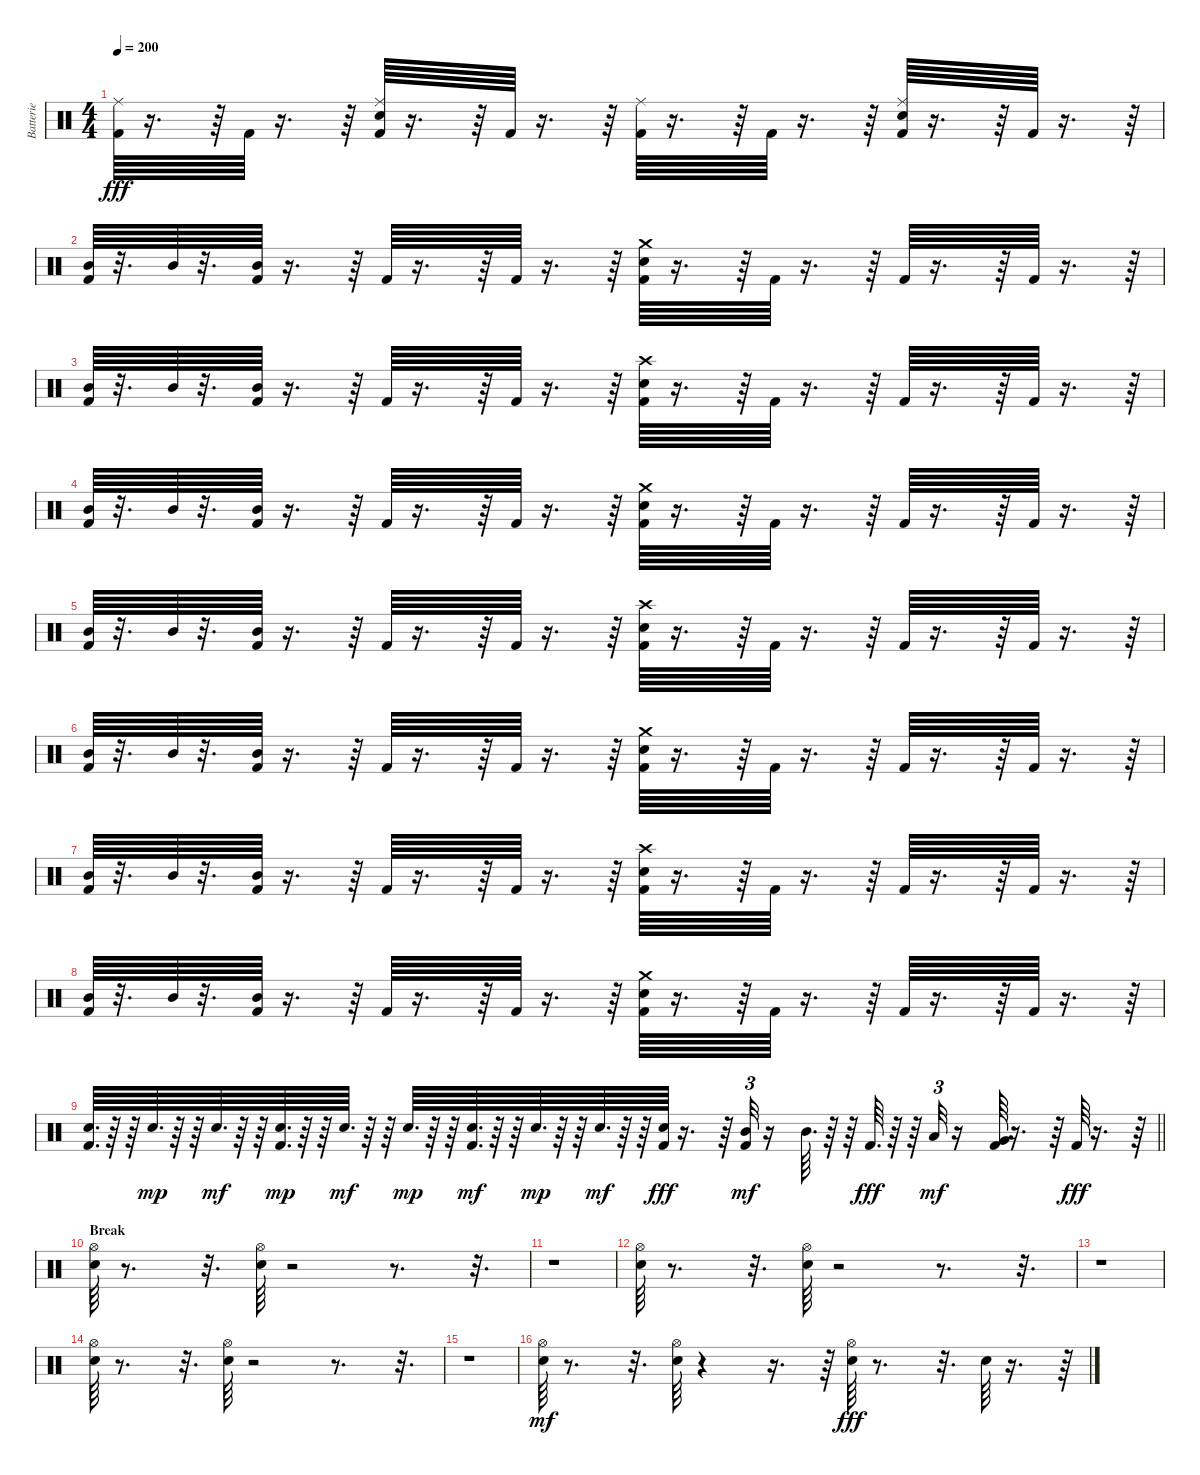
\track ("Batterie" "Batterie") {instrument percussion}
\staff {score}
\articulation defaults
\ts (4 4)
\tempo 200
\clef neutral
\ks c
("Kick (hit) 2" "Ride (middle)").64{dy fff} r.16{d} r.64 "Kick (hit) 2".64 r.16{d} r.64 ("Kick (hit) 2" "Snare (hit) 2" "Ride (middle)").64 r.16{d} r.64 "Kick (hit) 2".64 r.16{d} r.64 ("Kick (hit) 2" "Ride (middle)").64 r.16{d} r.64 "Kick (hit) 2".64 r.16{d} r.64 ("Kick (hit) 2" "Snare (hit) 2" "Ride (middle)").64 r.16{d} r.64 "Kick (hit) 2".64 r.16{d} r.64 |
("Kick (hit) 2" "Mid Tom (hit)").64 r.32{d} "Mid Tom (hit)".64 r.32{d} ("Kick (hit) 2" "Mid Tom (hit)").64 r.16{d} r.64 "Kick (hit) 2".64 r.16{d} r.64 "Kick (hit) 2".64 r.16{d} r.64 ("Kick (hit) 2" "Snare (hit) 2" "Crash medium (hit)").64 r.16{d} r.64 "Kick (hit) 2".64 r.16{d} r.64 "Kick (hit) 2".64 r.16{d} r.64 "Kick (hit) 2".64 r.16{d} r.64 |
("Kick (hit) 2" "Mid Tom (hit)").64 r.32{d} "Mid Tom (hit)".64 r.32{d} ("Kick (hit) 2" "Mid Tom (hit)").64 r.16{d} r.64 "Kick (hit) 2".64 r.16{d} r.64 "Kick (hit) 2".64 r.16{d} r.64 ("Snare (hit) 2" "Kick (hit) 2" "Crash high (hit)").64 r.16{d} r.64 "Kick (hit) 2".64 r.16{d} r.64 "Kick (hit) 2".64 r.16{d} r.64 "Kick (hit) 2".64 r.16{d} r.64 |
("Kick (hit) 2" "Mid Tom (hit)").64 r.32{d} "Mid Tom (hit)".64 r.32{d} ("Kick (hit) 2" "Mid Tom (hit)").64 r.16{d} r.64 "Kick (hit) 2".64 r.16{d} r.64 "Kick (hit) 2".64 r.16{d} r.64 ("Kick (hit) 2" "Snare (hit) 2" "Crash medium (hit)").64 r.16{d} r.64 "Kick (hit) 2".64 r.16{d} r.64 "Kick (hit) 2".64 r.16{d} r.64 "Kick (hit) 2".64 r.16{d} r.64 |
("Kick (hit) 2" "Mid Tom (hit)").64 r.32{d} "Mid Tom (hit)".64 r.32{d} ("Kick (hit) 2" "Mid Tom (hit)").64 r.16{d} r.64 "Kick (hit) 2".64 r.16{d} r.64 "Kick (hit) 2".64 r.16{d} r.64 ("Snare (hit) 2" "Kick (hit) 2" "Crash high (hit)").64 r.16{d} r.64 "Kick (hit) 2".64 r.16{d} r.64 "Kick (hit) 2".64 r.16{d} r.64 "Kick (hit) 2".64 r.16{d} r.64 |
("Kick (hit) 2" "Mid Tom (hit)").64 r.32{d} "Mid Tom (hit)".64 r.32{d} ("Kick (hit) 2" "Mid Tom (hit)").64 r.16{d} r.64 "Kick (hit) 2".64 r.16{d} r.64 "Kick (hit) 2".64 r.16{d} r.64 ("Kick (hit) 2" "Snare (hit) 2" "Crash medium (hit)").64 r.16{d} r.64 "Kick (hit) 2".64 r.16{d} r.64 "Kick (hit) 2".64 r.16{d} r.64 "Kick (hit) 2".64 r.16{d} r.64 |
("Kick (hit) 2" "Mid Tom (hit)").64 r.32{d} "Mid Tom (hit)".64 r.32{d} ("Kick (hit) 2" "Mid Tom (hit)").64 r.16{d} r.64 "Kick (hit) 2".64 r.16{d} r.64 "Kick (hit) 2".64 r.16{d} r.64 ("Snare (hit) 2" "Kick (hit) 2" "Crash high (hit)").64 r.16{d} r.64 "Kick (hit) 2".64 r.16{d} r.64 "Kick (hit) 2".64 r.16{d} r.64 "Kick (hit) 2".64 r.16{d} r.64 |
("Kick (hit) 2" "Mid Tom (hit)").64 r.32{d} "Mid Tom (hit)".64 r.32{d} ("Kick (hit) 2" "Mid Tom (hit)").64 r.16{d} r.64 "Kick (hit) 2".64 r.16{d} r.64 "Kick (hit) 2".64 r.16{d} r.64 ("Kick (hit) 2" "Snare (hit) 2" "Crash medium (hit)").64 r.16{d} r.64 "Kick (hit) 2".64 r.16{d} r.64 "Kick (hit) 2".64 r.16{d} r.64 "Kick (hit) 2".64 r.16{d} r.64 |
\barLineRight lightlight
("Kick (hit) 2" "Snare (hit) 2").64{d} r.64 r.64 "Snare (hit) 2".64{d dy mp} r.64 r.64 "Snare (hit) 2".64{d dy mf} r.64 r.64 ("Kick (hit) 2" "Snare (hit) 2").64{d dy mp} r.64 r.64 "Snare (hit) 2".64{d dy mf} r.64 r.64 "Snare (hit) 2".64{d dy mp} r.64 r.64 ("Kick (hit) 2" "Snare (hit) 2").64{d dy mf} r.64 r.64 "Snare (hit) 2".64{d dy mp} r.64 r.64 "Snare (hit) 2".64{d dy mf} r.64 r.64 ("Kick (hit) 2" "Snare (hit) 2").64{dy fff} r.16{d} r.64 ("Kick (hit) 2" "Mid Tom (hit)").32{tu (3 2) dy mf} r.16 "Mid Tom (hit)".64{d} r.64 r.64 "Kick (hit) 2".64{d dy fff} r.64 r.64 "Low Tom (hit)".32{tu (3 2) dy mf} r.16 ("Kick (hit) 2" "Very Low Tom (hit)").64 r.16{d} r.64 "Kick (hit) 2".64{dy fff} r.16{d} r.64 |
\section ("" "Break")
("Snare (hit) 2" "Hi-Hat (open)").64 r.8{d} r.32{d} ("Hi-Hat (open)" "Snare (hit) 2").64 r.2 r.8{d} r.32{d} |
r.1 |
("Snare (hit) 2" "Hi-Hat (open)").64 r.8{d} r.32{d} ("Snare (hit) 2" "Hi-Hat (open)").64 r.2 r.8{d} r.32{d} |
r.1 |
("Hi-Hat (open)" "Snare (hit) 2").64 r.8{d} r.32{d} ("Hi-Hat (open)" "Snare (hit) 2").64 r.2 r.8{d} r.32{d} |
r.1 |
("Snare (hit) 2" "Hi-Hat (open)").64{dy mf} r.8{d} r.32{d} ("Snare (hit) 2" "Hi-Hat (open)").64 r.4 r.16{d} r.64 ("Snare (hit) 2" "Hi-Hat (open)").64{dy fff} r.8{d} r.32{d} "Snare (hit) 2".64 r.16{d} r.64
